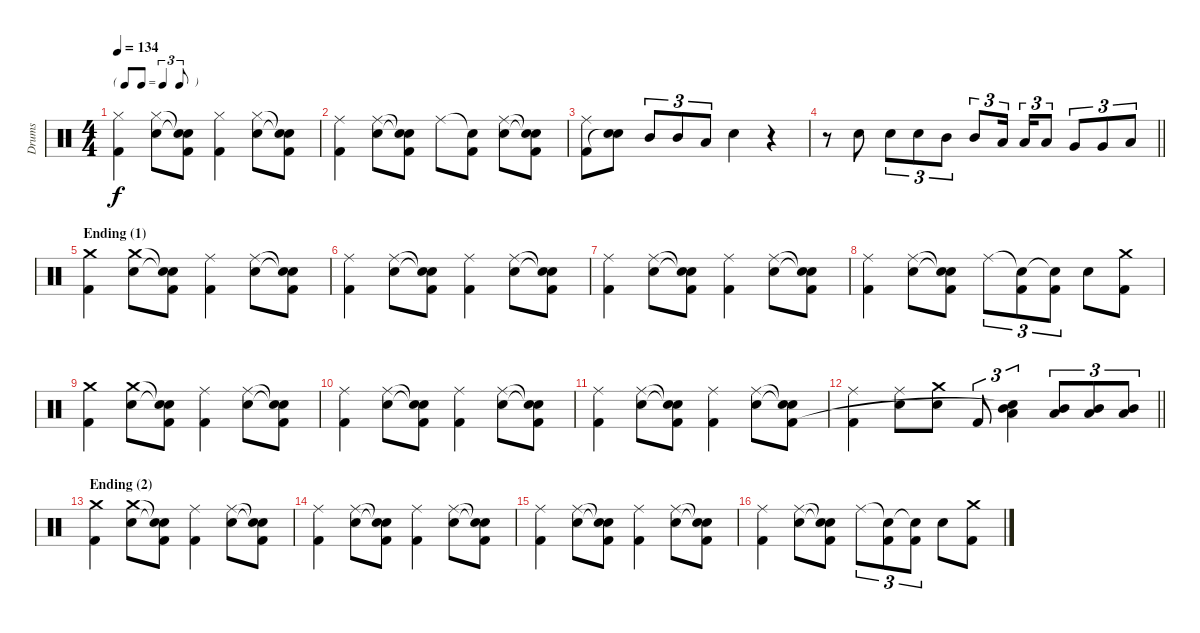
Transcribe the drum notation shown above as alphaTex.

\track ("Drums" "Drums") {instrument percussion}
\staff {score}
\articulation defaults
\ts (4 4)
\tf triplet8th
\tempo 134
\clef neutral
\ks c
("Hi-Hat (closed)" "Kick (hit) 2").4{dy f} ("Hi-Hat (closed)" "Electric Snare (hit)").8 ("Snare (hit)"{t} "Snare (hit)"{t} "Kick (hit) 2").8 ("Hi-Hat (closed)" "Kick (hit) 2").4 ("Hi-Hat (closed)" "Electric Snare (hit)").8 ("Snare (hit)"{t} "Snare (hit)"{t} "Kick (hit) 2").8 |
("Ride (middle)" "Kick (hit) 2").4 ("Ride (middle)" "Electric Snare (hit)").8 ("Snare (hit)"{t} "Snare (hit)"{t} "Kick (hit) 2").8 "Ride (middle)".8 ("Snare (hit)"{t} "Kick (hit) 2").8 ("Ride (middle)" "Electric Snare (hit)").8 ("Snare (hit)"{t} "Snare (hit)"{t} "Kick (hit) 2").8 |
("Ride (middle)" "Kick (hit) 2").8 ("Electric Snare (hit)" "Snare (hit)"{t}).8 "Mid Tom (hit)".8{tu (3 2)} "Mid Tom (hit)".8{tu (3 2)} "Low Tom (hit)".8{tu (3 2)} "Electric Snare (hit)".4 r.4 |
\barLineRight lightlight
r.8 "Electric Snare (hit)".8 "Electric Snare (hit)".8{tu (3 2)} "Electric Snare (hit)".8{tu (3 2)} "Mid Tom (hit)".8{tu (3 2)} "Mid Tom (hit)".8{tu (3 2)} "Low Tom (hit)".16{tu (3 2)} "Low Tom (hit)".16{tu (3 2)} "Low Tom (hit)".8{tu (3 2)} "Very Low Tom (hit)".8{tu (3 2)} "Very Low Tom (hit)".8{tu (3 2)} "Low Floor Tom (hit)".8{tu (3 2)} |
\section ("" "Ending (1)")
("Crash medium (hit)" "Kick (hit) 2").4 ("Crash medium (hit)" "Electric Snare (hit)").8 ("Snare (hit)"{t} "Snare (hit)"{t} "Kick (hit) 2").8 ("Ride (middle)" "Kick (hit) 2").4 ("Ride (middle)" "Electric Snare (hit)").8 ("Snare (hit)"{t} "Snare (hit)"{t} "Kick (hit) 2").8 |
("Ride (middle)" "Kick (hit) 2").4 ("Ride (middle)" "Electric Snare (hit)").8 ("Snare (hit)"{t} "Snare (hit)"{t} "Kick (hit) 2").8 ("Ride (middle)" "Kick (hit) 2").4 ("Ride (middle)" "Electric Snare (hit)").8 ("Snare (hit)"{t} "Snare (hit)"{t} "Kick (hit) 2").8 |
("Ride (middle)" "Kick (hit) 2").4 ("Ride (middle)" "Electric Snare (hit)").8 ("Snare (hit)"{t} "Snare (hit)"{t} "Kick (hit) 2").8 ("Ride (middle)" "Kick (hit) 2").4 ("Ride (middle)" "Electric Snare (hit)").8 ("Snare (hit)"{t} "Snare (hit)"{t} "Kick (hit) 2").8 |
("Ride (middle)" "Kick (hit) 2").4 ("Ride (middle)" "Electric Snare (hit)").8 ("Snare (hit)"{t} "Snare (hit)"{t} "Kick (hit) 2").8 "Ride (middle)".8{tu (3 2)} ("Snare (hit)"{t} "Kick (hit) 2").8{tu (3 2)} ("Snare (hit)"{t} "Kick (hit) 2").8{tu (3 2)} "Electric Snare (hit)".8 ("Crash medium (hit)" "Kick (hit) 2").8 |
("Crash medium (hit)" "Kick (hit) 2").4 ("Crash medium (hit)" "Electric Snare (hit)").8 ("Snare (hit)"{t} "Snare (hit)"{t} "Kick (hit) 2").8 ("Ride (middle)" "Kick (hit) 2").4 ("Ride (middle)" "Electric Snare (hit)").8 ("Snare (hit)"{t} "Snare (hit)"{t} "Kick (hit) 2").8 |
("Ride (middle)" "Kick (hit) 2").4 ("Ride (middle)" "Electric Snare (hit)").8 ("Snare (hit)"{t} "Snare (hit)"{t} "Kick (hit) 2").8 ("Ride (middle)" "Kick (hit) 2").4 ("Ride (middle)" "Electric Snare (hit)").8 ("Snare (hit)"{t} "Snare (hit)"{t} "Kick (hit) 2").8 |
("Ride (middle)" "Kick (hit) 2").4 ("Ride (middle)" "Electric Snare (hit)").8 ("Snare (hit)"{t} "Snare (hit)"{t} "Kick (hit) 2").8 ("Ride (middle)" "Kick (hit) 2").4 ("Ride (middle)" "Electric Snare (hit)").8 ("Snare (hit)"{t} "Snare (hit)"{t} "Kick (hit) 2").8 |
\barLineRight lightlight
("Ride (middle)" "Kick (hit) 2").4 ("Ride (middle)" "Electric Snare (hit)").8 ("Crash medium (hit)" "Electric Snare (hit)").8 "Kick (hit) 2".8{tu (3 2)} ("Mid Tom (hit)" "Low Tom (hit)" "Snare (hit)"{t}).4{tu (3 2)} ("Mid Tom (hit)" "Low Tom (hit)").8{tu (3 2)} ("Mid Tom (hit)" "Low Tom (hit)").8{tu (3 2)} ("Mid Tom (hit)" "Low Tom (hit)").8{tu (3 2)} |
\section ("" "Ending (2)")
("Crash medium (hit)" "Kick (hit) 2").4 ("Crash medium (hit)" "Electric Snare (hit)").8 ("Snare (hit)"{t} "Snare (hit)"{t} "Kick (hit) 2").8 ("Ride (middle)" "Kick (hit) 2").4 ("Ride (middle)" "Electric Snare (hit)").8 ("Snare (hit)"{t} "Snare (hit)"{t} "Kick (hit) 2").8 |
("Ride (middle)" "Kick (hit) 2").4 ("Ride (middle)" "Electric Snare (hit)").8 ("Snare (hit)"{t} "Snare (hit)"{t} "Kick (hit) 2").8 ("Ride (middle)" "Kick (hit) 2").4 ("Ride (middle)" "Electric Snare (hit)").8 ("Snare (hit)"{t} "Snare (hit)"{t} "Kick (hit) 2").8 |
("Ride (middle)" "Kick (hit) 2").4 ("Ride (middle)" "Electric Snare (hit)").8 ("Snare (hit)"{t} "Snare (hit)"{t} "Kick (hit) 2").8 ("Ride (middle)" "Kick (hit) 2").4 ("Ride (middle)" "Electric Snare (hit)").8 ("Snare (hit)"{t} "Snare (hit)"{t} "Kick (hit) 2").8 |
("Ride (middle)" "Kick (hit) 2").4 ("Ride (middle)" "Electric Snare (hit)").8 ("Snare (hit)"{t} "Snare (hit)"{t} "Kick (hit) 2").8 "Ride (middle)".8{tu (3 2)} ("Snare (hit)"{t} "Kick (hit) 2").8{tu (3 2)} ("Snare (hit)"{t} "Kick (hit) 2").8{tu (3 2)} "Electric Snare (hit)".8 ("Crash medium (hit)" "Kick (hit) 2").8
